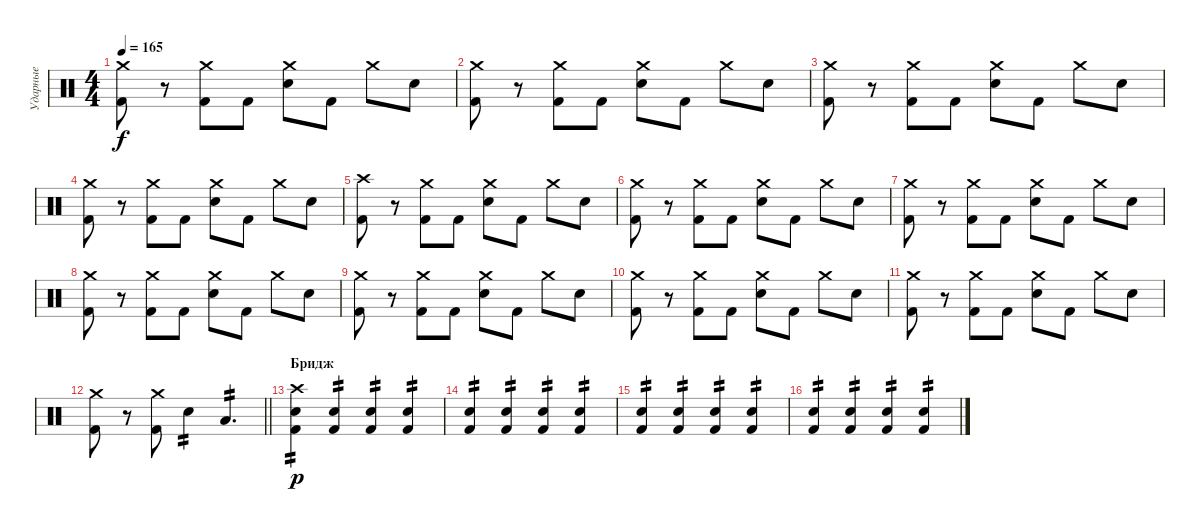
\track ("Ударные" "Ударные") {instrument percussion}
\staff {score}
\articulation defaults
\ts (4 4)
\tempo 165
\clef neutral
\ks c
("Crash medium (hit)" "Kick (hit) 2").8{dy f} r.8 ("Crash medium (hit)" "Kick (hit) 2").8 "Kick (hit) 2".8 ("Crash medium (hit)" "Electric Snare (hit)").8 "Kick (hit) 2".8 "Crash medium (hit)".8 "Electric Snare (hit)".8 |
("Crash medium (hit)" "Kick (hit) 2").8 r.8 ("Crash medium (hit)" "Kick (hit) 2").8 "Kick (hit) 2".8 ("Crash medium (hit)" "Electric Snare (hit)").8 "Kick (hit) 2".8 "Crash medium (hit)".8 "Electric Snare (hit)".8 |
("Crash medium (hit)" "Kick (hit) 2").8 r.8 ("Crash medium (hit)" "Kick (hit) 2").8 "Kick (hit) 2".8 ("Crash medium (hit)" "Electric Snare (hit)").8 "Kick (hit) 2".8 "Crash medium (hit)".8 "Electric Snare (hit)".8 |
("Crash medium (hit)" "Kick (hit) 2").8 r.8 ("Crash medium (hit)" "Kick (hit) 2").8 "Kick (hit) 2".8 ("Crash medium (hit)" "Electric Snare (hit)").8 "Kick (hit) 2".8 "Crash medium (hit)".8 "Electric Snare (hit)".8 |
("Crash high (hit)" "Kick (hit) 2").8 r.8 ("Crash medium (hit)" "Kick (hit) 2").8 "Kick (hit) 2".8 ("Crash medium (hit)" "Electric Snare (hit)").8 "Kick (hit) 2".8 "Crash medium (hit)".8 "Electric Snare (hit)".8 |
("Crash medium (hit)" "Kick (hit) 2").8 r.8 ("Crash medium (hit)" "Kick (hit) 2").8 "Kick (hit) 2".8 ("Crash medium (hit)" "Electric Snare (hit)").8 "Kick (hit) 2".8 "Crash medium (hit)".8 "Electric Snare (hit)".8 |
("Crash medium (hit)" "Kick (hit) 2").8 r.8 ("Crash medium (hit)" "Kick (hit) 2").8 "Kick (hit) 2".8 ("Crash medium (hit)" "Electric Snare (hit)").8 "Kick (hit) 2".8 "Crash medium (hit)".8 "Electric Snare (hit)".8 |
("Crash medium (hit)" "Kick (hit) 2").8 r.8 ("Crash medium (hit)" "Kick (hit) 2").8 "Kick (hit) 2".8 ("Crash medium (hit)" "Electric Snare (hit)").8 "Kick (hit) 2".8 "Crash medium (hit)".8 "Electric Snare (hit)".8 |
("Crash medium (hit)" "Kick (hit) 2").8 r.8 ("Crash medium (hit)" "Kick (hit) 2").8 "Kick (hit) 2".8 ("Crash medium (hit)" "Electric Snare (hit)").8 "Kick (hit) 2".8 "Crash medium (hit)".8 "Electric Snare (hit)".8 |
("Crash medium (hit)" "Kick (hit) 2").8 r.8 ("Crash medium (hit)" "Kick (hit) 2").8 "Kick (hit) 2".8 ("Crash medium (hit)" "Electric Snare (hit)").8 "Kick (hit) 2".8 "Crash medium (hit)".8 "Electric Snare (hit)".8 |
("Crash medium (hit)" "Kick (hit) 2").8 r.8 ("Crash medium (hit)" "Kick (hit) 2").8 "Kick (hit) 2".8 ("Crash medium (hit)" "Electric Snare (hit)").8 "Kick (hit) 2".8 "Crash medium (hit)".8 "Electric Snare (hit)".8 |
\barLineRight lightlight
("Crash medium (hit)" "Kick (hit) 2").8 r.8 ("Crash medium (hit)" "Kick (hit) 2").8 "Electric Snare (hit)".4{tp 2} "Low Tom (hit)".4{d tp 2} |
\section ("" "Бридж")
("Crash high (hit)" "Electric Snare (hit)" "Kick (hit) 2").4{tp 2 dy p} ("Electric Snare (hit)" "Kick (hit) 2").4{tp 2} ("Electric Snare (hit)" "Kick (hit) 2").4{tp 2} ("Electric Snare (hit)" "Kick (hit) 2").4{tp 2} |
("Electric Snare (hit)" "Kick (hit) 2").4{tp 2} ("Electric Snare (hit)" "Kick (hit) 2").4{tp 2} ("Electric Snare (hit)" "Kick (hit) 2").4{tp 2} ("Electric Snare (hit)" "Kick (hit) 2").4{tp 2} |
("Electric Snare (hit)" "Kick (hit) 2").4{tp 2} ("Electric Snare (hit)" "Kick (hit) 2").4{tp 2} ("Electric Snare (hit)" "Kick (hit) 2").4{tp 2} ("Electric Snare (hit)" "Kick (hit) 2").4{tp 2} |
("Electric Snare (hit)" "Kick (hit) 2").4{tp 2} ("Electric Snare (hit)" "Kick (hit) 2").4{tp 2} ("Electric Snare (hit)" "Kick (hit) 2").4{tp 2} ("Electric Snare (hit)" "Kick (hit) 2").4{tp 2}
